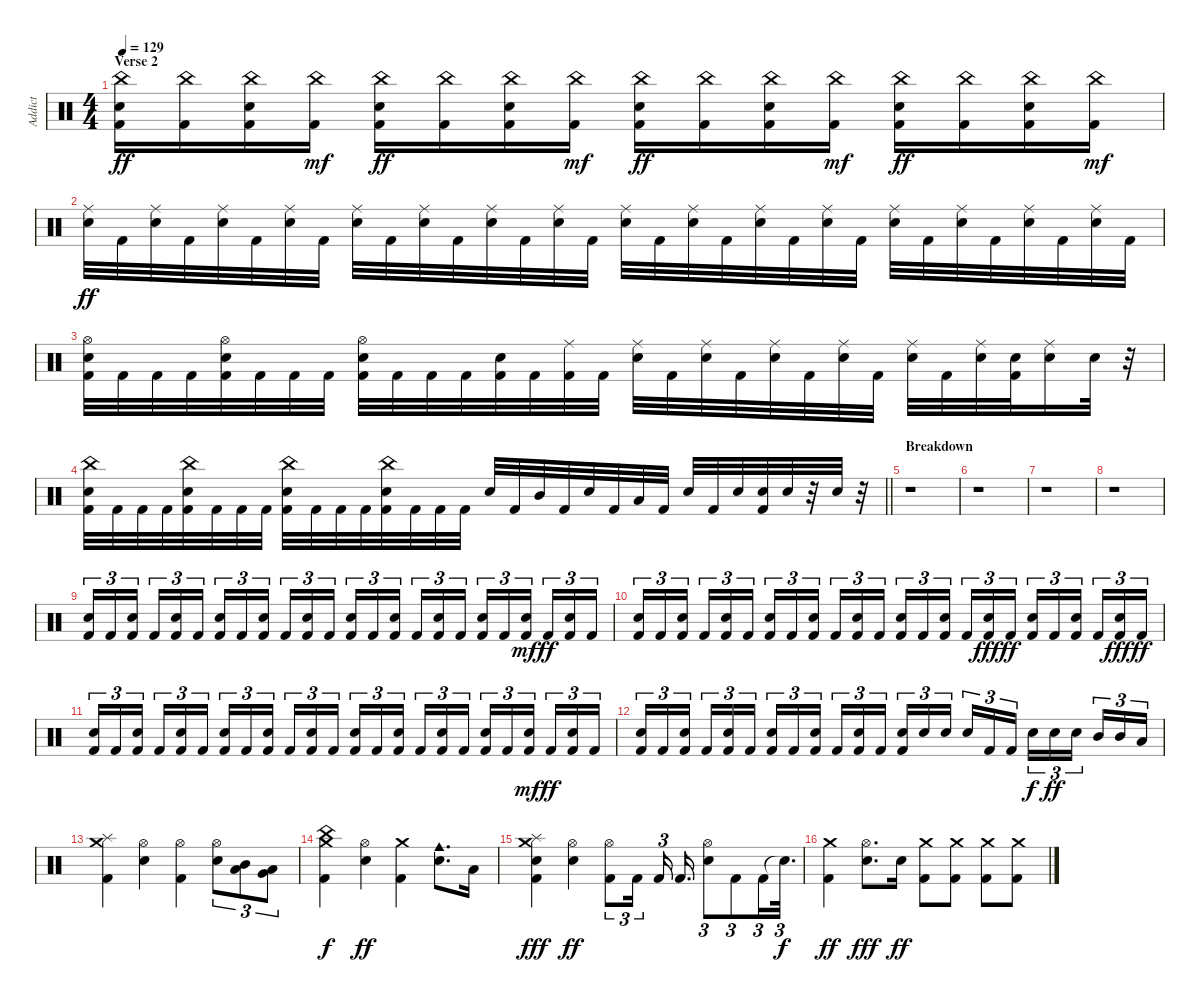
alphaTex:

\track ("Addict" "Addict") {instrument percussion}
\staff {score}
\articulation defaults
\ts (4 4)
\section ("" "Verse 2")
\tempo 129
\clef neutral
\ks c
("Kick (hit) 2" "Snare (hit) 2" "China (hit)").16{dy ff} ("Kick (hit) 2" "China (hit)").16 ("Kick (hit) 2" "Snare (hit) 2" "China (hit)").16 ("Kick (hit) 2" "China (hit)").16{dy mf} ("Kick (hit) 2" "Snare (hit) 2" "China (hit)").16{dy ff} ("Kick (hit) 2" "China (hit)").16 ("Kick (hit) 2" "Snare (hit) 2" "China (hit)").16 ("Kick (hit) 2" "China (hit)").16{dy mf} ("Kick (hit) 2" "Snare (hit) 2" "China (hit)").16{dy ff} ("Kick (hit) 2" "China (hit)").16 ("Kick (hit) 2" "Snare (hit) 2" "China (hit)").16 ("Kick (hit) 2" "China (hit)").16{dy mf} ("Kick (hit) 2" "Snare (hit) 2" "China (hit)").16{dy ff} ("Kick (hit) 2" "China (hit)").16 ("Kick (hit) 2" "Snare (hit) 2" "China (hit)").16 ("Kick (hit) 2" "China (hit)").16{dy mf} |
("Snare (hit) 2" "Ride (middle)").32{dy ff} "Kick (hit) 2".32 ("Snare (hit) 2" "Ride (middle)").32 "Kick (hit) 2".32 ("Snare (hit) 2" "Ride (middle)").32 "Kick (hit) 2".32 ("Snare (hit) 2" "Ride (middle)").32 "Kick (hit) 2".32 ("Snare (hit) 2" "Ride (middle)").32 "Kick (hit) 2".32 ("Snare (hit) 2" "Ride (middle)").32 "Kick (hit) 2".32 ("Snare (hit) 2" "Ride (middle)").32 "Kick (hit) 2".32 ("Snare (hit) 2" "Ride (middle)").32 "Kick (hit) 2".32 ("Snare (hit) 2" "Ride (middle)").32 "Kick (hit) 2".32 ("Snare (hit) 2" "Ride (middle)").32 "Kick (hit) 2".32 ("Snare (hit) 2" "Ride (middle)").32 "Kick (hit) 2".32 ("Snare (hit) 2" "Ride (middle)").32 "Kick (hit) 2".32 ("Snare (hit) 2" "Ride (middle)").32 "Kick (hit) 2".32 ("Snare (hit) 2" "Ride (middle)").32 "Kick (hit) 2".32 ("Snare (hit) 2" "Ride (middle)").32 "Kick (hit) 2".32 ("Snare (hit) 2" "Ride (middle)").32 "Kick (hit) 2".32 |
("Kick (hit) 2" "Snare (hit) 2" "Hi-Hat (open)").32 "Kick (hit) 2".32 "Kick (hit) 2".32 "Kick (hit) 2".32 ("Kick (hit) 2" "Snare (hit) 2" "Hi-Hat (open)").32 "Kick (hit) 2".32 "Kick (hit) 2".32 "Kick (hit) 2".32 ("Kick (hit) 2" "Snare (hit) 2" "Hi-Hat (open)").32 "Kick (hit) 2".32 "Kick (hit) 2".32 "Kick (hit) 2".32 ("Kick (hit) 2" "Snare (hit) 2").32 "Kick (hit) 2".32 ("Kick (hit) 2" "Ride (middle)").32 "Kick (hit) 2".32 ("Snare (hit) 2" "Ride (middle)").32 "Kick (hit) 2".32 ("Snare (hit) 2" "Ride (middle)").32 "Kick (hit) 2".32 ("Snare (hit) 2" "Ride (middle)").32 "Kick (hit) 2".32 ("Snare (hit) 2" "Ride (middle)").32 "Kick (hit) 2".32 ("Snare (hit) 2" "Ride (middle)").32 "Kick (hit) 2".32 ("Snare (hit) 2" "Ride (middle)").32 ("Kick (hit) 2" "Snare (hit) 2").32 ("Snare (hit) 2" "Ride (middle)").16 "Snare (hit) 2".32 r.32 |
\barLineRight lightlight
("Kick (hit) 2" "Snare (hit) 2" "China (hit)").32 "Kick (hit) 2".32 "Kick (hit) 2".32 "Kick (hit) 2".32 ("Kick (hit) 2" "Snare (hit) 2" "China (hit)").32 "Kick (hit) 2".32 "Kick (hit) 2".32 "Kick (hit) 2".32 ("Kick (hit) 2" "Snare (hit) 2" "China (hit)").32 "Kick (hit) 2".32 "Kick (hit) 2".32 "Kick (hit) 2".32 ("Kick (hit) 2" "Snare (hit) 2" "China (hit)").32 "Kick (hit) 2".32 "Kick (hit) 2".32 "Kick (hit) 2".32 "Snare (hit) 2".32 "Kick (hit) 2".32 "Mid Tom (hit)".32 "Kick (hit) 2".32 "Snare (hit) 2".32 "Kick (hit) 2".32 "Low Tom (hit)".32 "Kick (hit) 2".32 "Snare (hit) 2".32 "Kick (hit) 2".32 "Snare (hit) 2".32 ("Kick (hit) 2" "Snare (hit) 2").32 "Snare (hit) 2".32 r.32 "Snare (hit) 2".32 r.32 |
\section ("" "Breakdown")
r.1 |
r.1 |
r.1 |
r.1 |
("Kick (hit) 2" "Snare (hit) 2").16{tu (3 2)} "Kick (hit) 2".16{tu (3 2)} ("Kick (hit) 2" "Snare (hit) 2").16{tu (3 2) beam splitsecondary} "Kick (hit) 2".16{tu (3 2)} ("Kick (hit) 2" "Snare (hit) 2").16{tu (3 2)} "Kick (hit) 2".16{tu (3 2)} ("Kick (hit) 2" "Snare (hit) 2").16{tu (3 2)} "Kick (hit) 2".16{tu (3 2)} ("Kick (hit) 2" "Snare (hit) 2").16{tu (3 2) beam splitsecondary} "Kick (hit) 2".16{tu (3 2)} ("Kick (hit) 2" "Snare (hit) 2").16{tu (3 2)} "Kick (hit) 2".16{tu (3 2)} ("Kick (hit) 2" "Snare (hit) 2").16{tu (3 2)} "Kick (hit) 2".16{tu (3 2)} ("Kick (hit) 2" "Snare (hit) 2").16{tu (3 2) beam splitsecondary} "Kick (hit) 2".16{tu (3 2)} ("Kick (hit) 2" "Snare (hit) 2").16{tu (3 2)} "Kick (hit) 2".16{tu (3 2)} ("Kick (hit) 2" "Snare (hit) 2").16{tu (3 2)} "Kick (hit) 2".16{tu (3 2)} ("Kick (hit) 2" "Snare (hit) 2").16{tu (3 2) dy mf beam splitsecondary} "Kick (hit) 2".16{tu (3 2) dy ff} ("Kick (hit) 2" "Snare (hit) 2").16{tu (3 2)} "Kick (hit) 2".16{tu (3 2)} |
("Kick (hit) 2" "Snare (hit) 2").16{tu (3 2)} "Kick (hit) 2".16{tu (3 2)} ("Kick (hit) 2" "Snare (hit) 2").16{tu (3 2) beam splitsecondary} "Kick (hit) 2".16{tu (3 2)} ("Kick (hit) 2" "Snare (hit) 2").16{tu (3 2)} "Kick (hit) 2".16{tu (3 2)} ("Kick (hit) 2" "Snare (hit) 2").16{tu (3 2)} "Kick (hit) 2".16{tu (3 2)} ("Kick (hit) 2" "Snare (hit) 2").16{tu (3 2) beam splitsecondary} "Kick (hit) 2".16{tu (3 2)} ("Kick (hit) 2" "Snare (hit) 2").16{tu (3 2)} "Kick (hit) 2".16{tu (3 2)} ("Kick (hit) 2" "Snare (hit) 2").16{tu (3 2)} "Kick (hit) 2".16{tu (3 2)} ("Kick (hit) 2" "Snare (hit) 2").16{tu (3 2) beam splitsecondary} "Kick (hit) 2".16{tu (3 2)} ("Kick (hit) 2" "Snare (hit) 2").16{tu (3 2) dy fff} "Kick (hit) 2".16{tu (3 2) dy ff} ("Kick (hit) 2" "Snare (hit) 2").16{tu (3 2)} "Kick (hit) 2".16{tu (3 2)} ("Kick (hit) 2" "Snare (hit) 2").16{tu (3 2) beam splitsecondary} "Kick (hit) 2".16{tu (3 2)} ("Kick (hit) 2" "Snare (hit) 2").16{tu (3 2) dy fff} "Kick (hit) 2".16{tu (3 2) dy ff} |
("Kick (hit) 2" "Snare (hit) 2").16{tu (3 2)} "Kick (hit) 2".16{tu (3 2)} ("Kick (hit) 2" "Snare (hit) 2").16{tu (3 2) beam splitsecondary} "Kick (hit) 2".16{tu (3 2)} ("Kick (hit) 2" "Snare (hit) 2").16{tu (3 2)} "Kick (hit) 2".16{tu (3 2)} ("Kick (hit) 2" "Snare (hit) 2").16{tu (3 2)} "Kick (hit) 2".16{tu (3 2)} ("Kick (hit) 2" "Snare (hit) 2").16{tu (3 2) beam splitsecondary} "Kick (hit) 2".16{tu (3 2)} ("Kick (hit) 2" "Snare (hit) 2").16{tu (3 2)} "Kick (hit) 2".16{tu (3 2)} ("Kick (hit) 2" "Snare (hit) 2").16{tu (3 2)} "Kick (hit) 2".16{tu (3 2)} ("Kick (hit) 2" "Snare (hit) 2").16{tu (3 2) beam splitsecondary} "Kick (hit) 2".16{tu (3 2)} ("Kick (hit) 2" "Snare (hit) 2").16{tu (3 2)} "Kick (hit) 2".16{tu (3 2)} ("Kick (hit) 2" "Snare (hit) 2").16{tu (3 2)} "Kick (hit) 2".16{tu (3 2)} ("Kick (hit) 2" "Snare (hit) 2").16{tu (3 2) dy mf beam splitsecondary} "Kick (hit) 2".16{tu (3 2) dy ff} ("Kick (hit) 2" "Snare (hit) 2").16{tu (3 2)} "Kick (hit) 2".16{tu (3 2)} |
("Kick (hit) 2" "Snare (hit) 2").16{tu (3 2)} "Kick (hit) 2".16{tu (3 2)} ("Kick (hit) 2" "Snare (hit) 2").16{tu (3 2) beam splitsecondary} "Kick (hit) 2".16{tu (3 2)} ("Kick (hit) 2" "Snare (hit) 2").16{tu (3 2)} "Kick (hit) 2".16{tu (3 2)} ("Kick (hit) 2" "Snare (hit) 2").16{tu (3 2)} "Kick (hit) 2".16{tu (3 2)} ("Kick (hit) 2" "Snare (hit) 2").16{tu (3 2) beam splitsecondary} "Kick (hit) 2".16{tu (3 2)} ("Kick (hit) 2" "Snare (hit) 2").16{tu (3 2)} "Kick (hit) 2".16{tu (3 2)} ("Kick (hit) 2" "Snare (hit) 2").16{tu (3 2)} "Snare (hit) 2".16{tu (3 2)} "Snare (hit) 2".16{tu (3 2) beam splitsecondary} "Snare (hit) 2".16{tu (3 2)} "Kick (hit) 2".16{tu (3 2)} "Kick (hit) 2".16{tu (3 2)} "Snare (hit) 2".16{tu (3 2) dy f} "Snare (hit) 2".16{tu (3 2) dy ff} "Snare (hit) 2".16{tu (3 2) beam splitsecondary} "Mid Tom (hit)".16{tu (3 2)} "Mid Tom (hit)".16{tu (3 2)} "Low Tom (hit)".16{tu (3 2)} |
("Kick (hit) 2" "Crash medium (hit)" "Splash (hit)").4 ("Snare (hit) 2" "Hi-Hat (open)").4 ("Kick (hit) 2" "Hi-Hat (open)").4 ("Snare (hit) 2" "Hi-Hat (open)").8{tu (3 2)} ("Mid Tom (hit)" "Low Tom (hit)").8{tu (3 2)} ("Low Tom (hit)" "Very Low Tom (hit)").8{tu (3 2)} |
("Kick (hit) 2" "China (hit)" "Crash medium (hit)").4{dy f} ("Snare (hit) 2" "Hi-Hat (open)").4{dy ff} ("Kick (hit) 2" "Crash medium (hit)").4 ("Snare (hit) 2" "Cowbell medium (hit)").8{d} "Low Tom (hit)".16 |
("Kick (hit) 2" "Crash medium (hit)" "Splash (hit)" "Snare (hit)").4{dy fff} ("Snare (hit) 2" "Hi-Hat (open)").4{dy ff} ("Kick (hit) 2" "Hi-Hat (open)").8{tu (3 2)} "Kick (hit) 2".16{tu (3 2) beam splitsecondary} "Kick (hit) 2".16{tu (3 2)} "Kick (hit) 2".16{d} ("Snare (hit) 2" "Hi-Hat (open)").8{tu (3 2)} "Kick (hit) 2".8{tu (3 2)} "Kick (hit) 2".16{tu (3 2)} "Snare (hit)"{t}.32{d tu (3 2) dy f} |
("Kick (hit) 2" "Crash medium (hit)").4{dy ff} ("Snare (hit) 2" "Hi-Hat (open)").8{d dy fff} "Snare (hit) 2".16{dy ff} ("Kick (hit) 2" "Crash medium (hit)").8 ("Kick (hit) 2" "Crash medium (hit)").8 ("Kick (hit) 2" "Crash medium (hit)").8 ("Kick (hit) 2" "Crash medium (hit)").8
